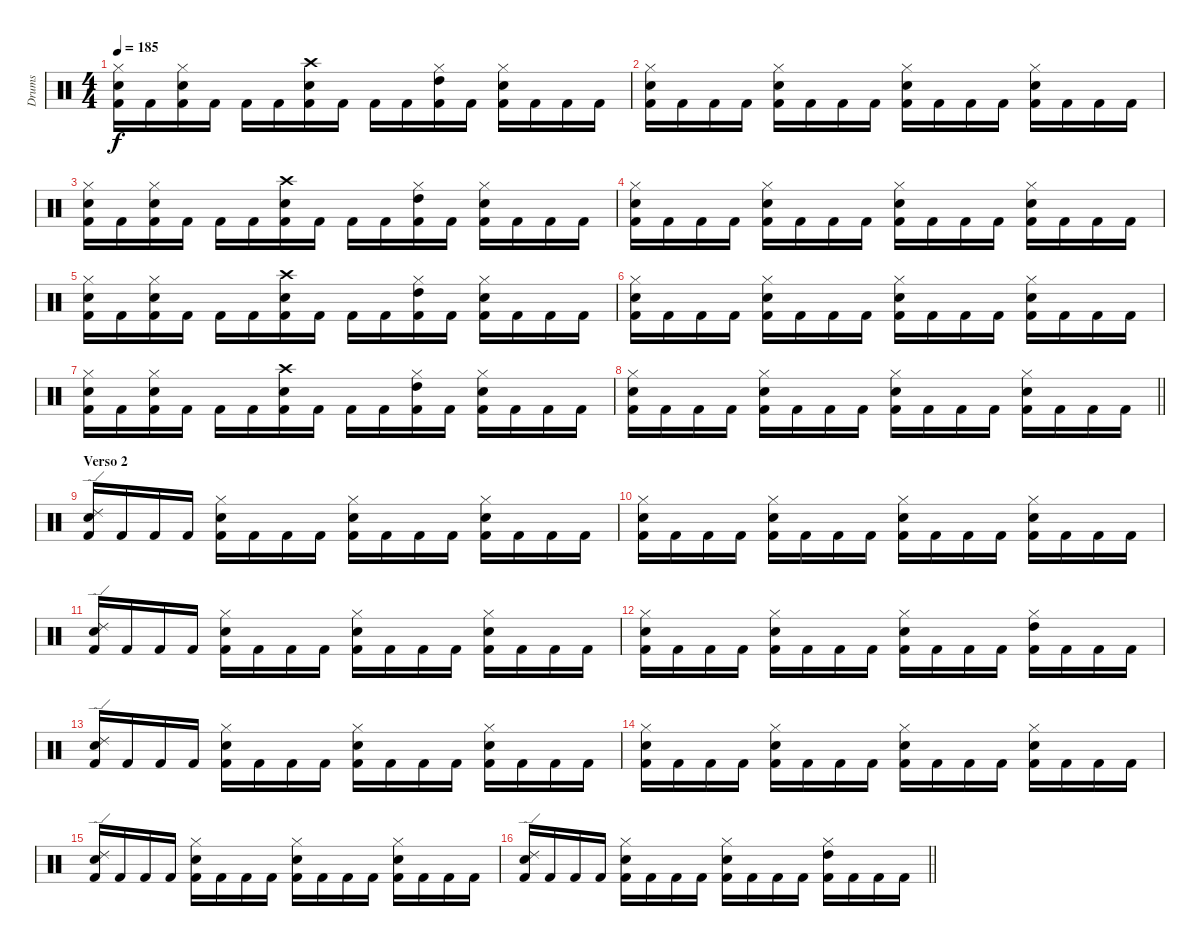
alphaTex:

\track ("Drums" "Drums") {instrument percussion}
\staff {score}
\articulation defaults
\ts (4 4)
\tempo 185
\clef neutral
\ks c
("Hi-Hat (closed)" "Electric Snare (hit)" "Kick (hit) 2").16{dy f} "Kick (hit) 2".16 ("Hi-Hat (closed)" "Electric Snare (hit)" "Kick (hit) 2").16 "Kick (hit) 2".16 "Kick (hit) 2".16 "Kick (hit) 2".16 ("Crash high (hit)" "Electric Snare (hit)" "Kick (hit) 2").16 "Kick (hit) 2".16 "Kick (hit) 2".16 "Kick (hit) 2".16 ("Hi-Hat (closed)" "High Tom (hit)" "Kick (hit) 2").16 "Kick (hit) 2".16 ("Hi-Hat (closed)" "Electric Snare (hit)" "Kick (hit) 2").16 "Kick (hit) 2".16 "Kick (hit) 2".16 "Kick (hit) 2".16 |
("Electric Snare (hit)" "Hi-Hat (closed)" "Kick (hit) 2").16 "Kick (hit) 2".16 "Kick (hit) 2".16 "Kick (hit) 2".16 ("Hi-Hat (closed)" "Electric Snare (hit)" "Kick (hit) 2").16 "Kick (hit) 2".16 "Kick (hit) 2".16 "Kick (hit) 2".16 ("Electric Snare (hit)" "Hi-Hat (closed)" "Kick (hit) 2").16 "Kick (hit) 2".16 "Kick (hit) 2".16 "Kick (hit) 2".16 ("Hi-Hat (closed)" "Electric Snare (hit)" "Kick (hit) 2").16 "Kick (hit) 2".16 "Kick (hit) 2".16 "Kick (hit) 2".16 |
("Hi-Hat (closed)" "Electric Snare (hit)" "Kick (hit) 2").16 "Kick (hit) 2".16 ("Hi-Hat (closed)" "Electric Snare (hit)" "Kick (hit) 2").16 "Kick (hit) 2".16 "Kick (hit) 2".16 "Kick (hit) 2".16 ("Crash high (hit)" "Electric Snare (hit)" "Kick (hit) 2").16 "Kick (hit) 2".16 "Kick (hit) 2".16 "Kick (hit) 2".16 ("Hi-Hat (closed)" "High Tom (hit)" "Kick (hit) 2").16 "Kick (hit) 2".16 ("Hi-Hat (closed)" "Electric Snare (hit)" "Kick (hit) 2").16 "Kick (hit) 2".16 "Kick (hit) 2".16 "Kick (hit) 2".16 |
("Electric Snare (hit)" "Hi-Hat (closed)" "Kick (hit) 2").16 "Kick (hit) 2".16 "Kick (hit) 2".16 "Kick (hit) 2".16 ("Hi-Hat (closed)" "Electric Snare (hit)" "Kick (hit) 2").16 "Kick (hit) 2".16 "Kick (hit) 2".16 "Kick (hit) 2".16 ("Electric Snare (hit)" "Hi-Hat (closed)" "Kick (hit) 2").16 "Kick (hit) 2".16 "Kick (hit) 2".16 "Kick (hit) 2".16 ("Hi-Hat (closed)" "Electric Snare (hit)" "Kick (hit) 2").16 "Kick (hit) 2".16 "Kick (hit) 2".16 "Kick (hit) 2".16 |
("Hi-Hat (closed)" "Electric Snare (hit)" "Kick (hit) 2").16 "Kick (hit) 2".16 ("Hi-Hat (closed)" "Electric Snare (hit)" "Kick (hit) 2").16 "Kick (hit) 2".16 "Kick (hit) 2".16 "Kick (hit) 2".16 ("Crash high (hit)" "Electric Snare (hit)" "Kick (hit) 2").16 "Kick (hit) 2".16 "Kick (hit) 2".16 "Kick (hit) 2".16 ("Hi-Hat (closed)" "High Tom (hit)" "Kick (hit) 2").16 "Kick (hit) 2".16 ("Hi-Hat (closed)" "Electric Snare (hit)" "Kick (hit) 2").16 "Kick (hit) 2".16 "Kick (hit) 2".16 "Kick (hit) 2".16 |
("Electric Snare (hit)" "Hi-Hat (closed)" "Kick (hit) 2").16 "Kick (hit) 2".16 "Kick (hit) 2".16 "Kick (hit) 2".16 ("Hi-Hat (closed)" "Electric Snare (hit)" "Kick (hit) 2").16 "Kick (hit) 2".16 "Kick (hit) 2".16 "Kick (hit) 2".16 ("Electric Snare (hit)" "Hi-Hat (closed)" "Kick (hit) 2").16 "Kick (hit) 2".16 "Kick (hit) 2".16 "Kick (hit) 2".16 ("Hi-Hat (closed)" "Electric Snare (hit)" "Kick (hit) 2").16 "Kick (hit) 2".16 "Kick (hit) 2".16 "Kick (hit) 2".16 |
("Hi-Hat (closed)" "Electric Snare (hit)" "Kick (hit) 2").16 "Kick (hit) 2".16 ("Hi-Hat (closed)" "Electric Snare (hit)" "Kick (hit) 2").16 "Kick (hit) 2".16 "Kick (hit) 2".16 "Kick (hit) 2".16 ("Crash high (hit)" "Electric Snare (hit)" "Kick (hit) 2").16 "Kick (hit) 2".16 "Kick (hit) 2".16 "Kick (hit) 2".16 ("Hi-Hat (closed)" "High Tom (hit)" "Kick (hit) 2").16 "Kick (hit) 2".16 ("Hi-Hat (closed)" "Electric Snare (hit)" "Kick (hit) 2").16 "Kick (hit) 2".16 "Kick (hit) 2".16 "Kick (hit) 2".16 |
\barLineRight lightlight
("Electric Snare (hit)" "Hi-Hat (closed)" "Kick (hit) 2").16 "Kick (hit) 2".16 "Kick (hit) 2".16 "Kick (hit) 2".16 ("Hi-Hat (closed)" "Electric Snare (hit)" "Kick (hit) 2").16 "Kick (hit) 2".16 "Kick (hit) 2".16 "Kick (hit) 2".16 ("Electric Snare (hit)" "Hi-Hat (closed)" "Kick (hit) 2").16 "Kick (hit) 2".16 "Kick (hit) 2".16 "Kick (hit) 2".16 ("Hi-Hat (closed)" "Electric Snare (hit)" "Kick (hit) 2").16 "Kick (hit) 2".16 "Kick (hit) 2".16 "Kick (hit) 2".16 |
\section ("" "Verso 2")
("Electric Snare (hit)" "Ride (edge) 2" "Kick (hit) 2").16 "Kick (hit) 2".16 "Kick (hit) 2".16 "Kick (hit) 2".16 ("Hi-Hat (closed)" "Electric Snare (hit)" "Kick (hit) 2").16 "Kick (hit) 2".16 "Kick (hit) 2".16 "Kick (hit) 2".16 ("Electric Snare (hit)" "Hi-Hat (closed)" "Kick (hit) 2").16 "Kick (hit) 2".16 "Kick (hit) 2".16 "Kick (hit) 2".16 ("Hi-Hat (closed)" "Electric Snare (hit)" "Kick (hit) 2").16 "Kick (hit) 2".16 "Kick (hit) 2".16 "Kick (hit) 2".16 |
("Electric Snare (hit)" "Hi-Hat (closed)" "Kick (hit) 2").16 "Kick (hit) 2".16 "Kick (hit) 2".16 "Kick (hit) 2".16 ("Hi-Hat (closed)" "Electric Snare (hit)" "Kick (hit) 2").16 "Kick (hit) 2".16 "Kick (hit) 2".16 "Kick (hit) 2".16 ("Electric Snare (hit)" "Hi-Hat (closed)" "Kick (hit) 2").16 "Kick (hit) 2".16 "Kick (hit) 2".16 "Kick (hit) 2".16 ("Hi-Hat (closed)" "Electric Snare (hit)" "Kick (hit) 2").16 "Kick (hit) 2".16 "Kick (hit) 2".16 "Kick (hit) 2".16 |
("Electric Snare (hit)" "Ride (edge) 2" "Kick (hit) 2").16 "Kick (hit) 2".16 "Kick (hit) 2".16 "Kick (hit) 2".16 ("Hi-Hat (closed)" "Electric Snare (hit)" "Kick (hit) 2").16 "Kick (hit) 2".16 "Kick (hit) 2".16 "Kick (hit) 2".16 ("Electric Snare (hit)" "Hi-Hat (closed)" "Kick (hit) 2").16 "Kick (hit) 2".16 "Kick (hit) 2".16 "Kick (hit) 2".16 ("Hi-Hat (closed)" "Electric Snare (hit)" "Kick (hit) 2").16 "Kick (hit) 2".16 "Kick (hit) 2".16 "Kick (hit) 2".16 |
("Electric Snare (hit)" "Hi-Hat (closed)" "Kick (hit) 2").16 "Kick (hit) 2".16 "Kick (hit) 2".16 "Kick (hit) 2".16 ("Hi-Hat (closed)" "Electric Snare (hit)" "Kick (hit) 2").16 "Kick (hit) 2".16 "Kick (hit) 2".16 "Kick (hit) 2".16 ("Electric Snare (hit)" "Hi-Hat (closed)" "Kick (hit) 2").16 "Kick (hit) 2".16 "Kick (hit) 2".16 "Kick (hit) 2".16 ("Hi-Hat (closed)" "High Tom (hit)" "Kick (hit) 2").16 "Kick (hit) 2".16 "Kick (hit) 2".16 "Kick (hit) 2".16 |
("Electric Snare (hit)" "Ride (edge) 2" "Kick (hit) 2").16 "Kick (hit) 2".16 "Kick (hit) 2".16 "Kick (hit) 2".16 ("Hi-Hat (closed)" "Electric Snare (hit)" "Kick (hit) 2").16 "Kick (hit) 2".16 "Kick (hit) 2".16 "Kick (hit) 2".16 ("Electric Snare (hit)" "Hi-Hat (closed)" "Kick (hit) 2").16 "Kick (hit) 2".16 "Kick (hit) 2".16 "Kick (hit) 2".16 ("Hi-Hat (closed)" "Electric Snare (hit)" "Kick (hit) 2").16 "Kick (hit) 2".16 "Kick (hit) 2".16 "Kick (hit) 2".16 |
("Electric Snare (hit)" "Hi-Hat (closed)" "Kick (hit) 2").16 "Kick (hit) 2".16 "Kick (hit) 2".16 "Kick (hit) 2".16 ("Hi-Hat (closed)" "Electric Snare (hit)" "Kick (hit) 2").16 "Kick (hit) 2".16 "Kick (hit) 2".16 "Kick (hit) 2".16 ("Electric Snare (hit)" "Hi-Hat (closed)" "Kick (hit) 2").16 "Kick (hit) 2".16 "Kick (hit) 2".16 "Kick (hit) 2".16 ("Hi-Hat (closed)" "Electric Snare (hit)" "Kick (hit) 2").16 "Kick (hit) 2".16 "Kick (hit) 2".16 "Kick (hit) 2".16 |
("Electric Snare (hit)" "Ride (edge) 2" "Kick (hit) 2").16 "Kick (hit) 2".16 "Kick (hit) 2".16 "Kick (hit) 2".16 ("Hi-Hat (closed)" "Electric Snare (hit)" "Kick (hit) 2").16 "Kick (hit) 2".16 "Kick (hit) 2".16 "Kick (hit) 2".16 ("Electric Snare (hit)" "Hi-Hat (closed)" "Kick (hit) 2").16 "Kick (hit) 2".16 "Kick (hit) 2".16 "Kick (hit) 2".16 ("Hi-Hat (closed)" "Electric Snare (hit)" "Kick (hit) 2").16 "Kick (hit) 2".16 "Kick (hit) 2".16 "Kick (hit) 2".16 |
\barLineRight lightlight
("Electric Snare (hit)" "Ride (edge) 2" "Kick (hit) 2").16 "Kick (hit) 2".16 "Kick (hit) 2".16 "Kick (hit) 2".16 ("Hi-Hat (closed)" "Electric Snare (hit)" "Kick (hit) 2").16 "Kick (hit) 2".16 "Kick (hit) 2".16 "Kick (hit) 2".16 ("Electric Snare (hit)" "Hi-Hat (closed)" "Kick (hit) 2").16 "Kick (hit) 2".16 "Kick (hit) 2".16 "Kick (hit) 2".16 ("Hi-Hat (closed)" "High Tom (hit)" "Kick (hit) 2").16 "Kick (hit) 2".16 "Kick (hit) 2".16 "Kick (hit) 2".16
